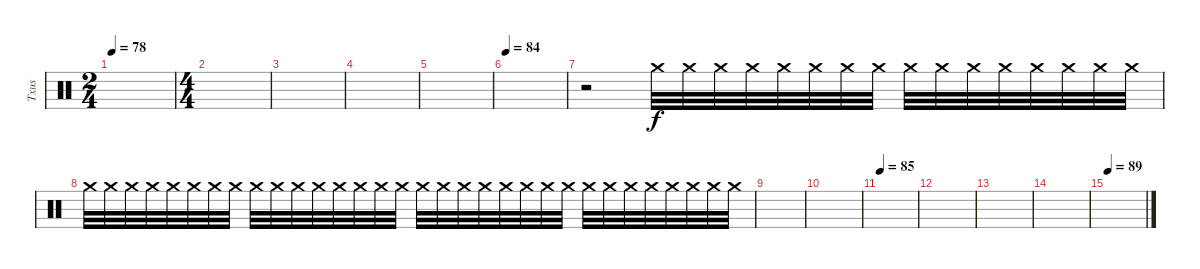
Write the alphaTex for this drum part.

\track ("Txus" "Txus") {instrument percussion}
\staff {score}
\articulation defaults
\ts (2 4)
\tempo 78
\clef neutral
\ks c
|
\ts (4 4)
\section ("" "")
|
|
|
|
\tempo 84
|
r.2 "Crash medium (hit)".32{volume 3} "Crash medium (hit)".32{volume 9} "Crash medium (hit)".32 "Crash medium (hit)".32 "Crash medium (hit)".32 "Crash medium (hit)".32 "Crash medium (hit)".32 "Crash medium (hit)".32 "Crash medium (hit)".32 "Crash medium (hit)".32 "Crash medium (hit)".32 "Crash medium (hit)".32 "Crash medium (hit)".32 "Crash medium (hit)".32 "Crash medium (hit)".32 "Crash medium (hit)".32 |
"Crash medium (hit)".32 "Crash medium (hit)".32 "Crash medium (hit)".32 "Crash medium (hit)".32 "Crash medium (hit)".32 "Crash medium (hit)".32 "Crash medium (hit)".32 "Crash medium (hit)".32 "Crash medium (hit)".32 "Crash medium (hit)".32 "Crash medium (hit)".32 "Crash medium (hit)".32 "Crash medium (hit)".32 "Crash medium (hit)".32 "Crash medium (hit)".32 "Crash medium (hit)".32 "Crash medium (hit)".32{volume 4} "Crash medium (hit)".32 "Crash medium (hit)".32 "Crash medium (hit)".32 "Crash medium (hit)".32 "Crash medium (hit)".32 "Crash medium (hit)".32 "Crash medium (hit)".32 "Crash medium (hit)".32 "Crash medium (hit)".32 "Crash medium (hit)".32 "Crash medium (hit)".32 "Crash medium (hit)".32 "Crash medium (hit)".32 "Crash medium (hit)".32 "Crash medium (hit)".32 |
|
\section ("" "")
|
\tempo 85
|
|
|
|
\tempo 89
